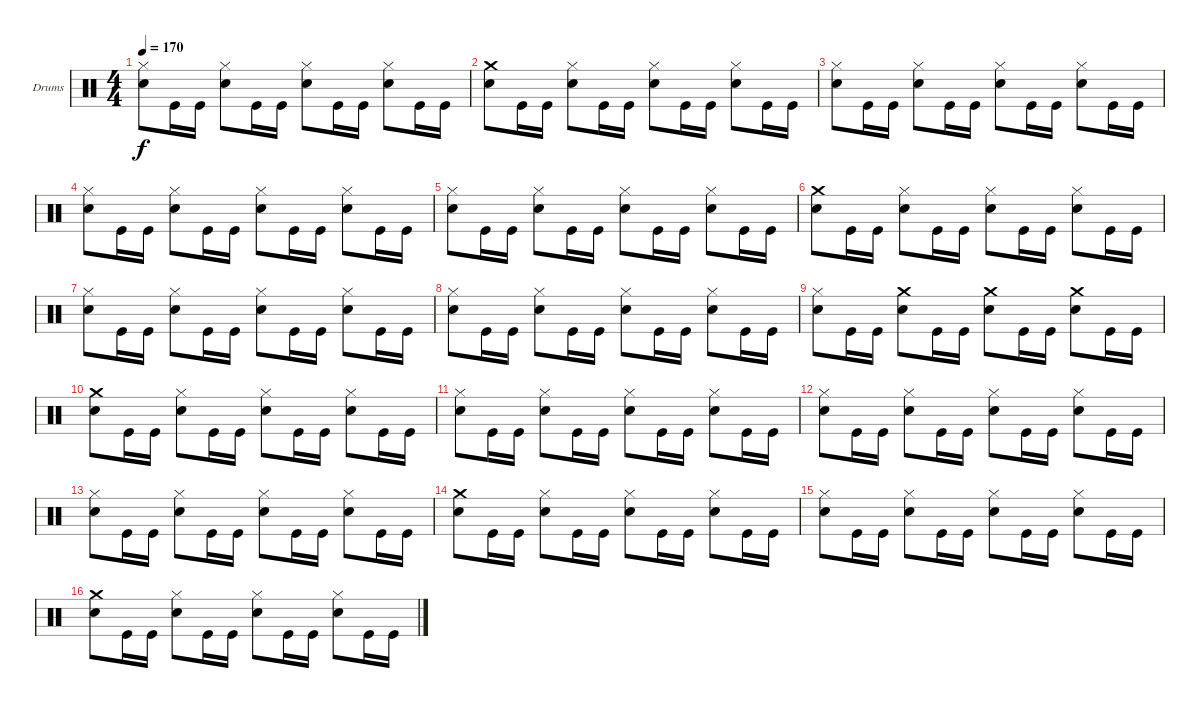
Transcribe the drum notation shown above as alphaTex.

\bracketExtendMode groupsimilarinstruments
\firstSystemTrackNameOrientation horizontal
\otherSystemsTrackNameOrientation horizontal
\track ("Drumkit" "Drums") {instrument percussion}
\staff {score}
\articulation defaults
\ts (4 4)
\tempo 170
\clef neutral
\ks c
("Hi-Hat (closed)" "Snare (hit) 2").8{dy f} "Kick (hit)".16 "Kick (hit)".16 ("Hi-Hat (closed)" "Snare (hit) 2").8 "Kick (hit)".16 "Kick (hit)".16 ("Hi-Hat (closed)" "Snare (hit) 2").8 "Kick (hit)".16 "Kick (hit)".16 ("Hi-Hat (closed)" "Snare (hit) 2").8 "Kick (hit)".16 "Kick (hit)".16 |
("Crash medium (hit)" "Snare (hit) 2").8 "Kick (hit)".16 "Kick (hit)".16 ("Hi-Hat (closed)" "Snare (hit) 2").8 "Kick (hit)".16 "Kick (hit)".16 ("Hi-Hat (closed)" "Snare (hit) 2").8 "Kick (hit)".16 "Kick (hit)".16 ("Hi-Hat (closed)" "Snare (hit) 2").8 "Kick (hit)".16 "Kick (hit)".16 |
("Hi-Hat (closed)" "Snare (hit) 2").8 "Kick (hit)".16 "Kick (hit)".16 ("Hi-Hat (closed)" "Snare (hit) 2").8 "Kick (hit)".16 "Kick (hit)".16 ("Hi-Hat (closed)" "Snare (hit) 2").8 "Kick (hit)".16 "Kick (hit)".16 ("Hi-Hat (closed)" "Snare (hit) 2").8 "Kick (hit)".16 "Kick (hit)".16 |
("Hi-Hat (closed)" "Snare (hit) 2").8 "Kick (hit)".16 "Kick (hit)".16 ("Hi-Hat (closed)" "Snare (hit) 2").8 "Kick (hit)".16 "Kick (hit)".16 ("Hi-Hat (closed)" "Snare (hit) 2").8 "Kick (hit)".16 "Kick (hit)".16 ("Hi-Hat (closed)" "Snare (hit) 2").8 "Kick (hit)".16 "Kick (hit)".16 |
("Hi-Hat (closed)" "Snare (hit) 2").8 "Kick (hit)".16 "Kick (hit)".16 ("Hi-Hat (closed)" "Snare (hit) 2").8 "Kick (hit)".16 "Kick (hit)".16 ("Hi-Hat (closed)" "Snare (hit) 2").8 "Kick (hit)".16 "Kick (hit)".16 ("Hi-Hat (closed)" "Snare (hit) 2").8 "Kick (hit)".16 "Kick (hit)".16 |
("Crash medium (hit)" "Snare (hit) 2").8 "Kick (hit)".16 "Kick (hit)".16 ("Hi-Hat (closed)" "Snare (hit) 2").8 "Kick (hit)".16 "Kick (hit)".16 ("Hi-Hat (closed)" "Snare (hit) 2").8 "Kick (hit)".16 "Kick (hit)".16 ("Hi-Hat (closed)" "Snare (hit) 2").8 "Kick (hit)".16 "Kick (hit)".16 |
("Hi-Hat (closed)" "Snare (hit) 2").8 "Kick (hit)".16 "Kick (hit)".16 ("Hi-Hat (closed)" "Snare (hit) 2").8 "Kick (hit)".16 "Kick (hit)".16 ("Hi-Hat (closed)" "Snare (hit) 2").8 "Kick (hit)".16 "Kick (hit)".16 ("Hi-Hat (closed)" "Snare (hit) 2").8 "Kick (hit)".16 "Kick (hit)".16 |
("Hi-Hat (closed)" "Snare (hit) 2").8 "Kick (hit)".16 "Kick (hit)".16 ("Hi-Hat (closed)" "Snare (hit) 2").8 "Kick (hit)".16 "Kick (hit)".16 ("Hi-Hat (closed)" "Snare (hit) 2").8 "Kick (hit)".16 "Kick (hit)".16 ("Hi-Hat (closed)" "Snare (hit) 2").8 "Kick (hit)".16 "Kick (hit)".16 |
("Hi-Hat (closed)" "Snare (hit) 2").8 "Kick (hit)".16 "Kick (hit)".16 ("Crash medium (hit)" "Snare (hit) 2").8 "Kick (hit)".16 "Kick (hit)".16 ("Crash medium (hit)" "Snare (hit) 2").8 "Kick (hit)".16 "Kick (hit)".16 ("Crash medium (hit)" "Snare (hit) 2").8 "Kick (hit)".16 "Kick (hit)".16 |
("Crash medium (hit)" "Snare (hit) 2").8 "Kick (hit)".16 "Kick (hit)".16 ("Hi-Hat (closed)" "Snare (hit) 2").8 "Kick (hit)".16 "Kick (hit)".16 ("Hi-Hat (closed)" "Snare (hit) 2").8 "Kick (hit)".16 "Kick (hit)".16 ("Hi-Hat (closed)" "Snare (hit) 2").8 "Kick (hit)".16 "Kick (hit)".16 |
("Hi-Hat (closed)" "Snare (hit) 2").8 "Kick (hit)".16 "Kick (hit)".16 ("Hi-Hat (closed)" "Snare (hit) 2").8 "Kick (hit)".16 "Kick (hit)".16 ("Hi-Hat (closed)" "Snare (hit) 2").8 "Kick (hit)".16 "Kick (hit)".16 ("Hi-Hat (closed)" "Snare (hit) 2").8 "Kick (hit)".16 "Kick (hit)".16 |
("Hi-Hat (closed)" "Snare (hit) 2").8 "Kick (hit)".16 "Kick (hit)".16 ("Hi-Hat (closed)" "Snare (hit) 2").8 "Kick (hit)".16 "Kick (hit)".16 ("Hi-Hat (closed)" "Snare (hit) 2").8 "Kick (hit)".16 "Kick (hit)".16 ("Hi-Hat (closed)" "Snare (hit) 2").8 "Kick (hit)".16 "Kick (hit)".16 |
("Hi-Hat (closed)" "Snare (hit) 2").8 "Kick (hit)".16 "Kick (hit)".16 ("Hi-Hat (closed)" "Snare (hit) 2").8 "Kick (hit)".16 "Kick (hit)".16 ("Hi-Hat (closed)" "Snare (hit) 2").8 "Kick (hit)".16 "Kick (hit)".16 ("Hi-Hat (closed)" "Snare (hit) 2").8 "Kick (hit)".16 "Kick (hit)".16 |
("Crash medium (hit)" "Snare (hit) 2").8 "Kick (hit)".16 "Kick (hit)".16 ("Hi-Hat (closed)" "Snare (hit) 2").8 "Kick (hit)".16 "Kick (hit)".16 ("Hi-Hat (closed)" "Snare (hit) 2").8 "Kick (hit)".16 "Kick (hit)".16 ("Hi-Hat (closed)" "Snare (hit) 2").8 "Kick (hit)".16 "Kick (hit)".16 |
("Hi-Hat (closed)" "Snare (hit) 2").8 "Kick (hit)".16 "Kick (hit)".16 ("Hi-Hat (closed)" "Snare (hit) 2").8 "Kick (hit)".16 "Kick (hit)".16 ("Hi-Hat (closed)" "Snare (hit) 2").8 "Kick (hit)".16 "Kick (hit)".16 ("Hi-Hat (closed)" "Snare (hit) 2").8 "Kick (hit)".16 "Kick (hit)".16 |
("Crash medium (hit)" "Snare (hit) 2").8 "Kick (hit)".16 "Kick (hit)".16 ("Hi-Hat (closed)" "Snare (hit) 2").8 "Kick (hit)".16 "Kick (hit)".16 ("Hi-Hat (closed)" "Snare (hit) 2").8 "Kick (hit)".16 "Kick (hit)".16 ("Hi-Hat (closed)" "Snare (hit) 2").8 "Kick (hit)".16 "Kick (hit)".16
